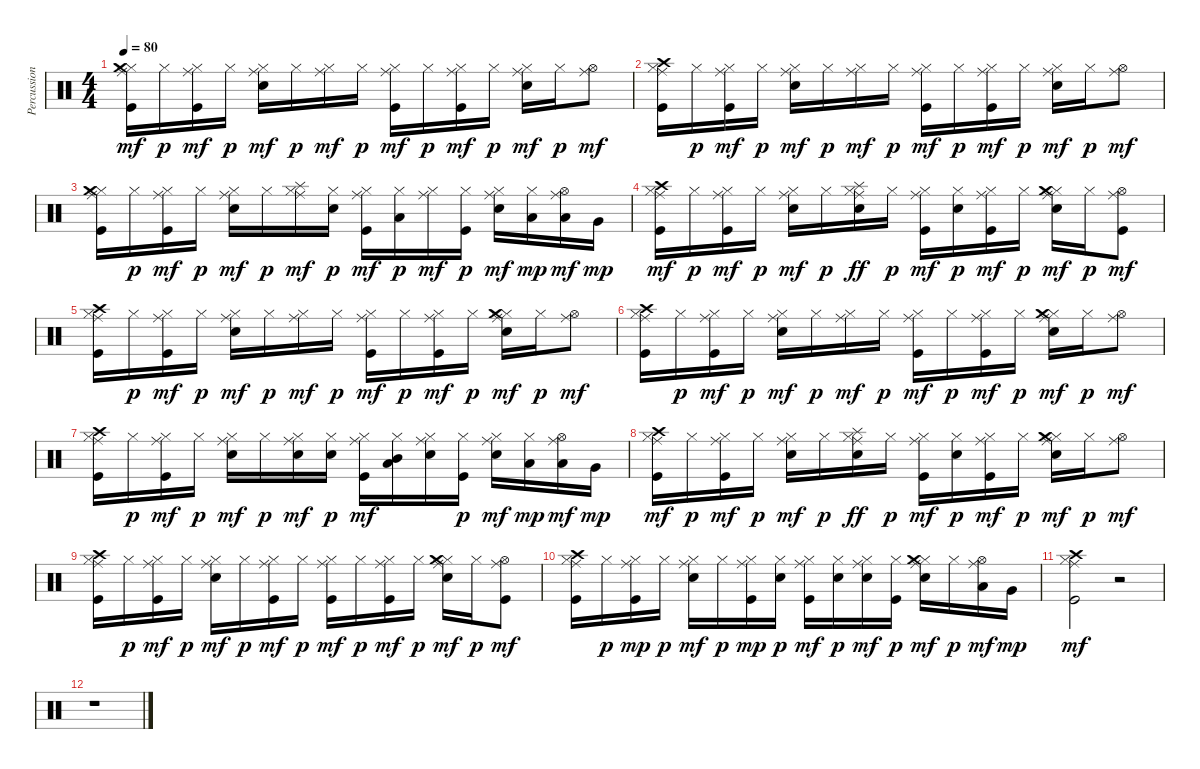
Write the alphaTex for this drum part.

\track ("Percussioni" "Percussion") {instrument percussion}
\staff {score}
\articulation defaults
\ts (4 4)
\tempo 80
\clef neutral
\ks c
("Kick (hit)" "Hi-Hat (closed)" "Ride (middle)" "Crash medium (hit)").16{dy mf} "Hi-Hat (closed)".16{dy p} ("Kick (hit)" "Hi-Hat (closed)" "Ride (middle)").16{dy mf} "Hi-Hat (closed)".16{dy p} ("Snare (hit) 2" "Hi-Hat (closed)" "Ride (middle)").16{dy mf} "Hi-Hat (closed)".16{dy p} ("Hi-Hat (closed)" "Ride (middle)").16{dy mf} "Hi-Hat (closed)".16{dy p} ("Kick (hit)" "Hi-Hat (closed)" "Ride (middle)").16{dy mf} "Hi-Hat (closed)".16{dy p} ("Kick (hit)" "Hi-Hat (closed)" "Ride (middle)").16{dy mf} "Hi-Hat (closed)".16{dy p} ("Snare (hit) 2" "Hi-Hat (closed)" "Ride (middle)").16{dy mf} "Hi-Hat (closed)".16{dy p} ("Hi-Hat (open)" "Ride (middle)").8{dy mf} |
("Kick (hit)" "Hi-Hat (closed)" "Crash high (hit)" "Ride (middle)").16 "Hi-Hat (closed)".16{dy p} ("Kick (hit)" "Hi-Hat (closed)" "Ride (middle)").16{dy mf} "Hi-Hat (closed)".16{dy p} ("Snare (hit) 2" "Hi-Hat (closed)" "Ride (middle)").16{dy mf} "Hi-Hat (closed)".16{dy p} ("Hi-Hat (closed)" "Ride (middle)").16{dy mf} "Hi-Hat (closed)".16{dy p} ("Kick (hit)" "Hi-Hat (closed)" "Ride (middle)").16{dy mf} "Hi-Hat (closed)".16{dy p} ("Kick (hit)" "Hi-Hat (closed)" "Ride (middle)").16{dy mf} "Hi-Hat (closed)".16{dy p} ("Snare (hit) 2" "Hi-Hat (closed)" "Ride (middle)").16{dy mf} "Hi-Hat (closed)".16{dy p} ("Hi-Hat (open)" "Ride (middle)").8{dy mf} |
("Kick (hit)" "Hi-Hat (closed)" "Ride (middle)" "Crash medium (hit)").16 "Hi-Hat (closed)".16{dy p} ("Kick (hit)" "Hi-Hat (closed)" "Ride (middle)").16{dy mf} "Hi-Hat (closed)".16{dy p} ("Snare (hit) 2" "Hi-Hat (closed)" "Ride (middle)").16{dy mf} "Hi-Hat (closed)".16{dy p} ("Hi-Hat (closed)" "Ride (middle)" "Splash (hit)").16{dy mf} ("Snare (hit) 2" "Hi-Hat (closed)").16{dy p} ("Kick (hit)" "Hi-Hat (closed)" "Ride (middle)").16{dy mf} ("Hi-Hat (closed)" "Low Tom (hit)").16{dy p} ("Hi-Hat (closed)" "Ride (middle)").16{dy mf} ("Kick (hit)" "Hi-Hat (closed)").16{dy p} ("Snare (hit) 2" "Hi-Hat (closed)" "Ride (middle)").16{dy mf} ("Hi-Hat (closed)" "Low Tom (hit)").16{dy mp} ("Low Tom (hit)" "Hi-Hat (open)" "Ride (middle)").16{dy mf} "Very Low Tom (hit)".16{dy mp} |
("Kick (hit)" "Hi-Hat (closed)" "Crash high (hit)" "Ride (middle)").16{dy mf} "Hi-Hat (closed)".16{dy p} ("Kick (hit)" "Hi-Hat (closed)" "Ride (middle)").16{dy mf} "Hi-Hat (closed)".16{dy p} ("Snare (hit) 2" "Hi-Hat (closed)" "Ride (middle)").16{dy mf} "Hi-Hat (closed)".16{dy p} ("Snare (hit) 2" "Hi-Hat (closed)" "Ride (middle)" "Splash (hit)").16{dy ff} "Hi-Hat (closed)".16{dy p} ("Kick (hit)" "Hi-Hat (closed)" "Ride (middle)").16{dy mf} ("Snare (hit) 2" "Hi-Hat (closed)").16{dy p} ("Kick (hit)" "Hi-Hat (closed)" "Ride (middle)").16{dy mf} "Hi-Hat (closed)".16{dy p} ("Snare (hit) 2" "Hi-Hat (closed)" "Ride (middle)" "Crash medium (hit)").16{dy mf} "Hi-Hat (closed)".16{dy p} ("Kick (hit)" "Hi-Hat (open)" "Ride (middle)").8{dy mf} |
("Kick (hit)" "Hi-Hat (closed)" "Crash high (hit)" "Ride (middle)").16 "Hi-Hat (closed)".16{dy p} ("Kick (hit)" "Hi-Hat (closed)" "Ride (middle)").16{dy mf} "Hi-Hat (closed)".16{dy p} ("Snare (hit) 2" "Hi-Hat (closed)" "Ride (middle)").16{dy mf} "Hi-Hat (closed)".16{dy p} ("Hi-Hat (closed)" "Ride (middle)").16{dy mf} "Hi-Hat (closed)".16{dy p} ("Kick (hit)" "Hi-Hat (closed)" "Ride (middle)").16{dy mf} "Hi-Hat (closed)".16{dy p} ("Kick (hit)" "Hi-Hat (closed)" "Ride (middle)").16{dy mf} "Hi-Hat (closed)".16{dy p} ("Snare (hit) 2" "Hi-Hat (closed)" "Ride (middle)" "Crash medium (hit)").16{dy mf} "Hi-Hat (closed)".16{dy p} ("Hi-Hat (open)" "Ride (middle)").8{dy mf} |
("Kick (hit)" "Hi-Hat (closed)" "Crash high (hit)" "Ride (middle)").16 "Hi-Hat (closed)".16{dy p} ("Kick (hit)" "Hi-Hat (closed)" "Ride (middle)").16{dy mf} "Hi-Hat (closed)".16{dy p} ("Snare (hit) 2" "Hi-Hat (closed)" "Ride (middle)").16{dy mf} "Hi-Hat (closed)".16{dy p} ("Hi-Hat (closed)" "Ride (middle)").16{dy mf} "Hi-Hat (closed)".16{dy p} ("Kick (hit)" "Hi-Hat (closed)" "Ride (middle)").16{dy mf} "Hi-Hat (closed)".16{dy p} ("Kick (hit)" "Hi-Hat (closed)" "Ride (middle)").16{dy mf} "Hi-Hat (closed)".16{dy p} ("Snare (hit) 2" "Hi-Hat (closed)" "Ride (middle)" "Crash medium (hit)").16{dy mf} "Hi-Hat (closed)".16{dy p} ("Hi-Hat (open)" "Ride (middle)").8{dy mf} |
("Kick (hit)" "Hi-Hat (closed)" "Crash high (hit)" "Ride (middle)").16 "Hi-Hat (closed)".16{dy p} ("Kick (hit)" "Hi-Hat (closed)" "Ride (middle)").16{dy mf} "Hi-Hat (closed)".16{dy p} ("Snare (hit) 2" "Hi-Hat (closed)" "Ride (middle)").16{dy mf} "Hi-Hat (closed)".16{dy p} ("Snare (hit) 2" "Hi-Hat (closed)" "Ride (middle)").16{dy mf} ("Snare (hit) 2" "Hi-Hat (closed)").16{dy p} ("Kick (hit)" "Hi-Hat (closed)" "Ride (middle)").16{dy mf} ("Hi-Hat (closed)" "Low Tom (hit)" "Mid Tom (hit)").16 ("Snare (hit) 2" "Hi-Hat (closed)" "Ride (middle)").16 ("Kick (hit)" "Hi-Hat (closed)").16{dy p} ("Snare (hit) 2" "Hi-Hat (closed)" "Ride (middle)").16{dy mf} ("Hi-Hat (closed)" "Low Tom (hit)").16{dy mp} ("Low Tom (hit)" "Hi-Hat (open)" "Ride (middle)").16{dy mf} "Very Low Tom (hit)".16{dy mp} |
("Kick (hit)" "Hi-Hat (closed)" "Crash high (hit)" "Ride (middle)").16{dy mf} "Hi-Hat (closed)".16{dy p} ("Kick (hit)" "Hi-Hat (closed)" "Ride (middle)").16{dy mf} "Hi-Hat (closed)".16{dy p} ("Snare (hit) 2" "Hi-Hat (closed)" "Ride (middle)").16{dy mf} "Hi-Hat (closed)".16{dy p} ("Snare (hit) 2" "Hi-Hat (closed)" "Ride (middle)" "Splash (hit)").16{dy ff} "Hi-Hat (closed)".16{dy p} ("Kick (hit)" "Hi-Hat (closed)" "Ride (middle)").16{dy mf} ("Snare (hit) 2" "Hi-Hat (closed)").16{dy p} ("Kick (hit)" "Hi-Hat (closed)" "Ride (middle)").16{dy mf} "Hi-Hat (closed)".16{dy p} ("Snare (hit) 2" "Hi-Hat (closed)" "Ride (middle)" "Crash medium (hit)").16{dy mf} "Hi-Hat (closed)".16{dy p} ("Hi-Hat (open)" "Ride (middle)").8{dy mf} |
("Kick (hit)" "Hi-Hat (closed)" "Crash high (hit)" "Ride (middle)").16 "Hi-Hat (closed)".16{dy p} ("Kick (hit)" "Hi-Hat (closed)" "Ride (middle)").16{dy mf} "Hi-Hat (closed)".16{dy p} ("Snare (hit) 2" "Hi-Hat (closed)" "Ride (middle)").16{dy mf} "Hi-Hat (closed)".16{dy p} ("Kick (hit)" "Hi-Hat (closed)" "Ride (middle)").16{dy mf} "Hi-Hat (closed)".16{dy p} ("Kick (hit)" "Hi-Hat (closed)" "Ride (middle)").16{dy mf} "Hi-Hat (closed)".16{dy p} ("Kick (hit)" "Hi-Hat (closed)" "Ride (middle)").16{dy mf} "Hi-Hat (closed)".16{dy p} ("Snare (hit) 2" "Hi-Hat (closed)" "Ride (middle)" "Crash medium (hit)").16{dy mf} "Hi-Hat (closed)".16{dy p} ("Kick (hit)" "Hi-Hat (open)" "Ride (middle)").8{dy mf} |
("Kick (hit)" "Hi-Hat (closed)" "Crash high (hit)" "Ride (middle)").16 "Hi-Hat (closed)".16{dy p} ("Kick (hit)" "Hi-Hat (closed)" "Ride (middle)").16{dy mp} "Hi-Hat (closed)".16{dy p} ("Snare (hit) 2" "Hi-Hat (closed)" "Ride (middle)").16{dy mf} "Hi-Hat (closed)".16{dy p} ("Kick (hit)" "Hi-Hat (closed)" "Ride (middle)").16{dy mp} ("Snare (hit) 2" "Hi-Hat (closed)").16{dy p} ("Kick (hit)" "Hi-Hat (closed)" "Ride (middle)").16{dy mf} ("Snare (hit) 2" "Hi-Hat (closed)").16{dy p} ("Snare (hit) 2" "Hi-Hat (closed)" "Ride (middle)").16{dy mf} ("Kick (hit)" "Hi-Hat (closed)").16{dy p} ("Snare (hit) 2" "Hi-Hat (closed)" "Ride (middle)" "Crash medium (hit)").16{dy mf} "Hi-Hat (closed)".16{dy p} ("Low Tom (hit)" "Hi-Hat (open)" "Ride (middle)").16{dy mf} "Very Low Tom (hit)".16{dy mp} |
("Kick (hit)" "Hi-Hat (closed)" "Crash high (hit)" "Ride (middle)").2{dy mf} r.2 |
r.1
